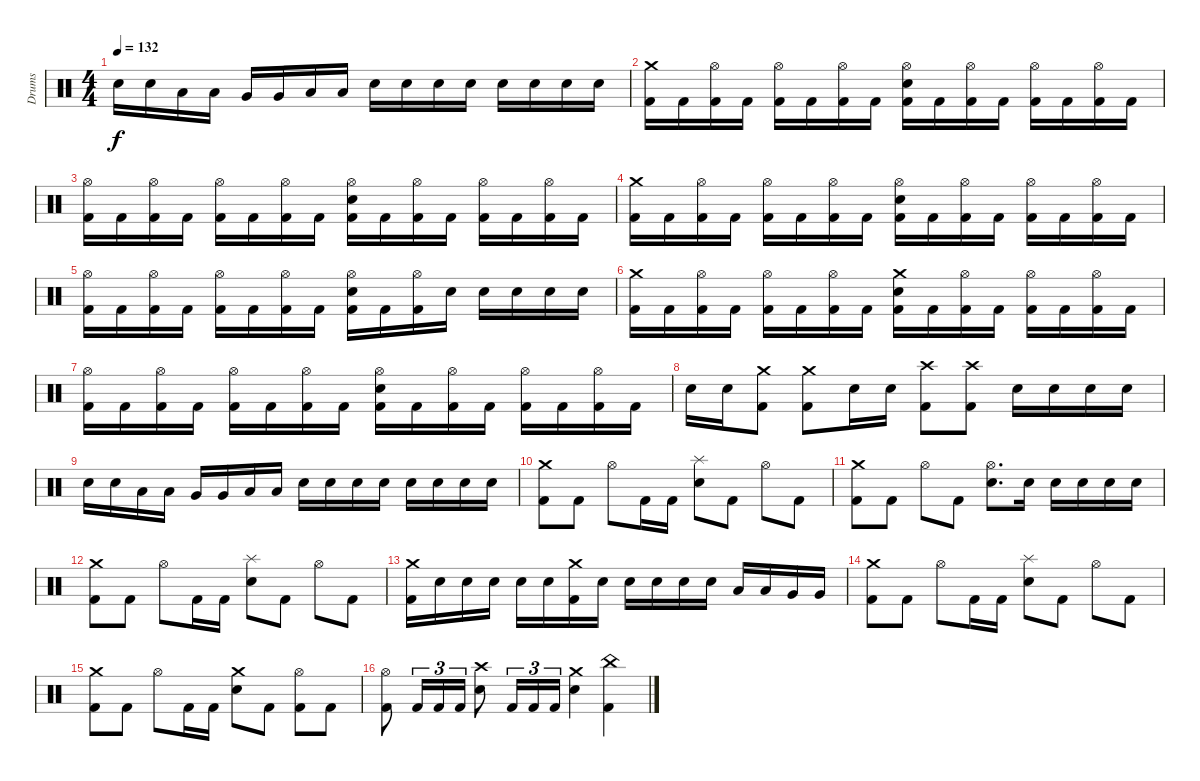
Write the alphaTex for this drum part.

\track ("Drums" "Drums") {instrument percussion}
\staff {score}
\articulation defaults
\ts (4 4)
\tempo 132
\clef neutral
\ks c "Electric Snare (hit)".16{dy f} "Electric Snare (hit)".16 "Low Tom (hit)".16 "Low Tom (hit)".16 "Very Low Tom (hit)".16 "Very Low Tom (hit)".16 "Low Floor Tom (hit)".16 "Low Floor Tom (hit)".16 "Electric Snare (hit)".16 "Electric Snare (hit)".16 "Electric Snare (hit)".16 "Electric Snare (hit)".16 "Electric Snare (hit)".16 "Electric Snare (hit)".16 "Electric Snare (hit)".16 "Electric Snare (hit)".16
|
("Crash medium (hit)" "Kick (hit) 2").16 "Kick (hit) 2".16 ("Hi-Hat (open)" "Kick (hit) 2").16 "Kick (hit) 2".16 ("Hi-Hat (open)" "Kick (hit) 2").16 "Kick (hit) 2".16 ("Hi-Hat (open)" "Kick (hit) 2").16 "Kick (hit) 2".16 ("Hi-Hat (open)" "Electric Snare (hit)" "Kick (hit) 2").16 "Kick (hit) 2".16 ("Hi-Hat (open)" "Kick (hit) 2").16 "Kick (hit) 2".16 ("Hi-Hat (open)" "Kick (hit) 2").16 "Kick (hit) 2".16 ("Hi-Hat (open)" "Kick (hit) 2").16 "Kick (hit) 2".16 |
("Hi-Hat (open)" "Kick (hit) 2").16 "Kick (hit) 2".16 ("Hi-Hat (open)" "Kick (hit) 2").16 "Kick (hit) 2".16 ("Hi-Hat (open)" "Kick (hit) 2").16 "Kick (hit) 2".16 ("Hi-Hat (open)" "Kick (hit) 2").16 "Kick (hit) 2".16 ("Hi-Hat (open)" "Electric Snare (hit)" "Kick (hit) 2").16 "Kick (hit) 2".16 ("Hi-Hat (open)" "Kick (hit) 2").16 "Kick (hit) 2".16 ("Hi-Hat (open)" "Kick (hit) 2").16 "Kick (hit) 2".16 ("Hi-Hat (open)" "Kick (hit) 2").16 "Kick (hit) 2".16 |
("Crash medium (hit)" "Kick (hit) 2").16 "Kick (hit) 2".16 ("Hi-Hat (open)" "Kick (hit) 2").16 "Kick (hit) 2".16 ("Hi-Hat (open)" "Kick (hit) 2").16 "Kick (hit) 2".16 ("Hi-Hat (open)" "Kick (hit) 2").16 "Kick (hit) 2".16 ("Hi-Hat (open)" "Electric Snare (hit)" "Kick (hit) 2").16 "Kick (hit) 2".16 ("Hi-Hat (open)" "Kick (hit) 2").16 "Kick (hit) 2".16 ("Hi-Hat (open)" "Kick (hit) 2").16 "Kick (hit) 2".16 ("Hi-Hat (open)" "Kick (hit) 2").16 "Kick (hit) 2".16 |
("Hi-Hat (open)" "Kick (hit) 2").16 "Kick (hit) 2".16 ("Hi-Hat (open)" "Kick (hit) 2").16 "Kick (hit) 2".16 ("Hi-Hat (open)" "Kick (hit) 2").16 "Kick (hit) 2".16 ("Hi-Hat (open)" "Kick (hit) 2").16 "Kick (hit) 2".16 ("Hi-Hat (open)" "Electric Snare (hit)" "Kick (hit) 2").16 "Kick (hit) 2".16 ("Hi-Hat (open)" "Kick (hit) 2").16 "Electric Snare (hit)".16 "Electric Snare (hit)".16 "Electric Snare (hit)".16 "Electric Snare (hit)".16 "Electric Snare (hit)".16 |
("Crash medium (hit)" "Kick (hit) 2").16 "Kick (hit) 2".16 ("Hi-Hat (open)" "Kick (hit) 2").16 "Kick (hit) 2".16 ("Hi-Hat (open)" "Kick (hit) 2").16 "Kick (hit) 2".16 ("Hi-Hat (open)" "Kick (hit) 2").16 "Kick (hit) 2".16 ("Crash medium (hit)" "Electric Snare (hit)" "Kick (hit) 2").16 "Kick (hit) 2".16 ("Hi-Hat (open)" "Kick (hit) 2").16 "Kick (hit) 2".16 ("Hi-Hat (open)" "Kick (hit) 2").16 "Kick (hit) 2".16 ("Hi-Hat (open)" "Kick (hit) 2").16 "Kick (hit) 2".16 |
("Hi-Hat (open)" "Kick (hit) 2").16 "Kick (hit) 2".16 ("Hi-Hat (open)" "Kick (hit) 2").16 "Kick (hit) 2".16 ("Hi-Hat (open)" "Kick (hit) 2").16 "Kick (hit) 2".16 ("Hi-Hat (open)" "Kick (hit) 2").16 "Kick (hit) 2".16 ("Hi-Hat (open)" "Electric Snare (hit)" "Kick (hit) 2").16 "Kick (hit) 2".16 ("Hi-Hat (open)" "Kick (hit) 2").16 "Kick (hit) 2".16 ("Hi-Hat (open)" "Kick (hit) 2").16 "Kick (hit) 2".16 ("Hi-Hat (open)" "Kick (hit) 2").16 "Kick (hit) 2".16 |
"Electric Snare (hit)".16 "Electric Snare (hit)".16 ("Crash medium (hit)" "Kick (hit) 2").8 ("Crash medium (hit)" "Kick (hit) 2").8 "Electric Snare (hit)".16 "Electric Snare (hit)".16 ("Crash high (hit)" "Kick (hit) 2").8 ("Crash high (hit)" "Kick (hit) 2").8 "Electric Snare (hit)".16 "Electric Snare (hit)".16 "Electric Snare (hit)".16 "Electric Snare (hit)".16 |
"Electric Snare (hit)".16 "Electric Snare (hit)".16 "Low Tom (hit)".16 "Low Tom (hit)".16 "Very Low Tom (hit)".16 "Very Low Tom (hit)".16 "Low Floor Tom (hit)".16 "Low Floor Tom (hit)".16 "Electric Snare (hit)".16 "Electric Snare (hit)".16 "Electric Snare (hit)".16 "Electric Snare (hit)".16 "Electric Snare (hit)".16 "Electric Snare (hit)".16 "Electric Snare (hit)".16 "Electric Snare (hit)".16 |
("Crash medium (hit)" "Kick (hit) 2").8 "Kick (hit) 2".8 "Hi-Hat (open)".8 "Kick (hit) 2".16 "Kick (hit) 2".16 ("Splash (hit)" "Electric Snare (hit)").8 "Kick (hit) 2".8 "Hi-Hat (open)".8 "Kick (hit) 2".8 |
("Crash medium (hit)" "Kick (hit) 2").8 "Kick (hit) 2".8 "Hi-Hat (open)".8 "Kick (hit) 2".8 ("Hi-Hat (open)" "Electric Snare (hit)").8{d} "Electric Snare (hit)".16 "Electric Snare (hit)".16 "Electric Snare (hit)".16 "Electric Snare (hit)".16 "Electric Snare (hit)".16 |
("Crash medium (hit)" "Kick (hit) 2").8 "Kick (hit) 2".8 "Hi-Hat (open)".8 "Kick (hit) 2".16 "Kick (hit) 2".16 ("Splash (hit)" "Electric Snare (hit)").8 "Kick (hit) 2".8 "Hi-Hat (open)".8 "Kick (hit) 2".8 |
("Crash medium (hit)" "Kick (hit) 2").16 "Electric Snare (hit)".16 "Electric Snare (hit)".16 "Electric Snare (hit)".16 "Electric Snare (hit)".16 "Electric Snare (hit)".16 ("Crash medium (hit)" "Kick (hit) 2").16 "Electric Snare (hit)".16 "Electric Snare (hit)".16 "Electric Snare (hit)".16 "Electric Snare (hit)".16 "Electric Snare (hit)".16 "Low Tom (hit)".16 "Low Tom (hit)".16 "Very Low Tom (hit)".16 "Very Low Tom (hit)".16 |
("Crash medium (hit)" "Kick (hit) 2").8 "Kick (hit) 2".8 "Hi-Hat (open)".8 "Kick (hit) 2".16 "Kick (hit) 2".16 ("Splash (hit)" "Electric Snare (hit)").8 "Kick (hit) 2".8 "Hi-Hat (open)".8 "Kick (hit) 2".8 |
("Crash medium (hit)" "Kick (hit) 2").8 "Kick (hit) 2".8 "Hi-Hat (open)".8 "Kick (hit) 2".16 "Kick (hit) 2".16 ("Crash medium (hit)" "Electric Snare (hit)").8 "Kick (hit) 2".8 ("Hi-Hat (open)" "Kick (hit) 2").8 "Kick (hit) 2".8 |
("Hi-Hat (open)" "Kick (hit) 2").8 "Kick (hit) 2".16{tu (3 2)} "Kick (hit) 2".16{tu (3 2)} "Kick (hit) 2".16{tu (3 2)} ("Crash high (hit)" "Electric Snare (hit)").8 "Kick (hit) 2".16{tu (3 2)} "Kick (hit) 2".16{tu (3 2)} "Kick (hit) 2".16{tu (3 2)} ("Crash medium (hit)" "Electric Snare (hit)").4 ("China (hit)" "Kick (hit) 2").4
